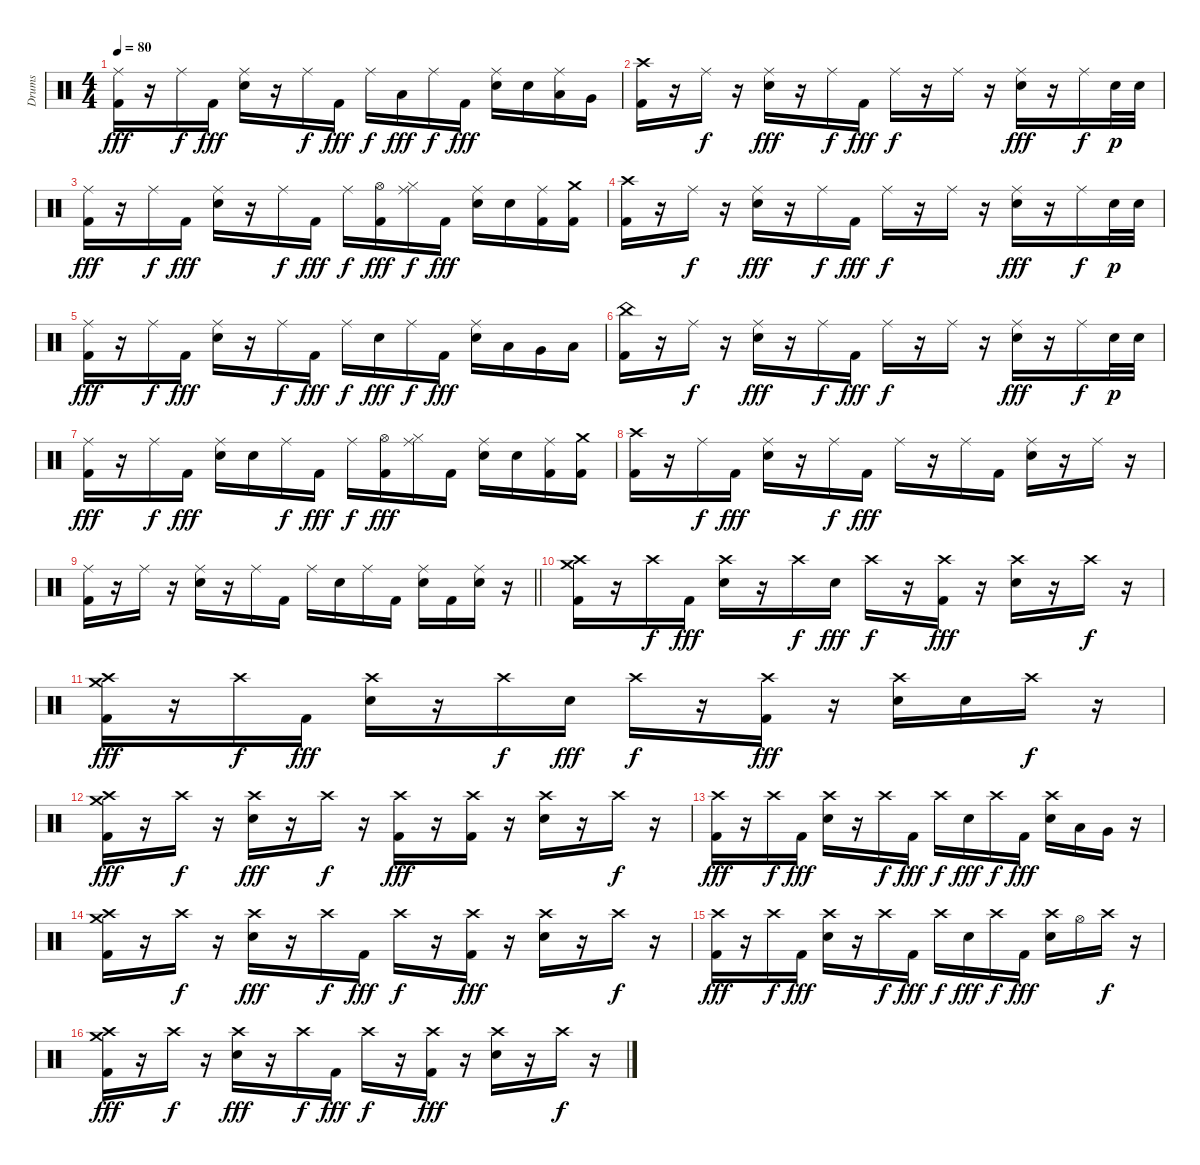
\track ("Drums" "Drums") {instrument percussion}
\staff {score}
\articulation defaults
\ts (4 4)
\tempo 80
\clef neutral
\ks c
("Ride (middle)" "Kick (hit) 2").16{dy fff} r.16 "Ride (middle)".16{dy f} "Kick (hit) 2".16{dy fff} ("Ride (middle)" "Electric Snare (hit)").16 r.16 "Ride (middle)".16{dy f} "Kick (hit) 2".16{dy fff} "Ride (middle)".16{dy f} "Low Tom (hit)".16{dy fff} "Ride (middle)".16{dy f} "Kick (hit) 2".16{dy fff} ("Ride (middle)" "Electric Snare (hit)").16 "Electric Snare (hit)".16 ("Ride (middle)" "Low Tom (hit)").16 "Very Low Tom (hit)".16 |
("Crash high (hit)" "Kick (hit) 2").16 r.16 "Ride (middle)".16{dy f} r.16 ("Ride (middle)" "Electric Snare (hit)").16{dy fff} r.16 "Ride (middle)".16{dy f} "Kick (hit) 2".16{dy fff} "Ride (middle)".16{dy f} r.16 "Ride (middle)".16 r.16 ("Ride (middle)" "Electric Snare (hit)").16{dy fff} r.16 "Ride (middle)".16{dy f} "Electric Snare (hit)".32{dy p} "Electric Snare (hit)".32 |
("Ride (middle)" "Kick (hit) 2").16{dy fff} r.16 "Ride (middle)".16{dy f} "Kick (hit) 2".16{dy fff} ("Ride (middle)" "Electric Snare (hit)").16 r.16 "Ride (middle)".16{dy f} "Kick (hit) 2".16{dy fff} "Ride (middle)".16{dy f} ("Hi-Hat (open)" "Kick (hit) 2").16{dy fff} ("Ride (middle)" "Hi-Hat (closed)").16{dy f} "Kick (hit) 2".16{dy fff} ("Ride (middle)" "Electric Snare (hit)").16 "Electric Snare (hit)".16 ("Ride (middle)" "Kick (hit) 2").16 ("Crash medium (hit)" "Kick (hit) 2").16 |
("Crash high (hit)" "Kick (hit) 2").16 r.16 "Ride (middle)".16{dy f} r.16 ("Ride (middle)" "Electric Snare (hit)").16{dy fff} r.16 "Ride (middle)".16{dy f} "Kick (hit) 2".16{dy fff} "Ride (middle)".16{dy f} r.16 "Ride (middle)".16 r.16 ("Ride (middle)" "Electric Snare (hit)").16{dy fff} r.16 "Ride (middle)".16{dy f} "Electric Snare (hit)".32{dy p} "Electric Snare (hit)".32 |
("Ride (middle)" "Kick (hit) 2").16{dy fff} r.16 "Ride (middle)".16{dy f} "Kick (hit) 2".16{dy fff} ("Ride (middle)" "Electric Snare (hit)").16 r.16 "Ride (middle)".16{dy f} "Kick (hit) 2".16{dy fff} "Ride (middle)".16{dy f} "Electric Snare (hit)".16{dy fff} "Ride (middle)".16{dy f} "Kick (hit) 2".16{dy fff} ("Ride (middle)" "Electric Snare (hit)").16 "Low Tom (hit)".16 "Very Low Tom (hit)".16 "Low Floor Tom (hit)".16 |
("China (hit)" "Kick (hit) 2").16 r.16 "Ride (middle)".16{dy f} r.16 ("Ride (middle)" "Electric Snare (hit)").16{dy fff} r.16 "Ride (middle)".16{dy f} "Kick (hit) 2".16{dy fff} "Ride (middle)".16{dy f} r.16 "Ride (middle)".16 r.16 ("Ride (middle)" "Electric Snare (hit)").16{dy fff} r.16 "Ride (middle)".16{dy f} "Electric Snare (hit)".32{dy p} "Electric Snare (hit)".32 |
("Ride (middle)" "Kick (hit) 2").16{dy fff} r.16 "Ride (middle)".16{dy f} "Kick (hit) 2".16{dy fff} ("Ride (middle)" "Electric Snare (hit)").16 "Electric Snare (hit)".16 "Ride (middle)".16{dy f} "Kick (hit) 2".16{dy fff} "Ride (middle)".16{dy f} ("Hi-Hat (open)" "Kick (hit) 2").16{dy fff} ("Ride (middle)" "Hi-Hat (closed)").16 "Kick (hit) 2".16 ("Ride (middle)" "Electric Snare (hit)").16 "Electric Snare (hit)".16 ("Ride (middle)" "Kick (hit) 2").16 ("Crash medium (hit)" "Kick (hit) 2").16 |
("Crash high (hit)" "Kick (hit) 2").16 r.16 "Ride (middle)".16{dy f} "Kick (hit) 2".16{dy fff} ("Ride (middle)" "Electric Snare (hit)").16 r.16 "Ride (middle)".16{dy f} "Kick (hit) 2".16{dy fff} "Ride (middle)".16 r.16 "Ride (middle)".16 "Kick (hit) 2".16 ("Ride (middle)" "Electric Snare (hit)").16 r.16 "Ride (middle)".16 r.16 |
\barLineRight lightlight
("Ride (middle)" "Kick (hit) 2").16 r.16 "Ride (middle)".16 r.16 ("Ride (middle)" "Electric Snare (hit)").16 r.16 "Ride (middle)".16 "Kick (hit) 2".16 "Ride (middle)".16 "Electric Snare (hit)".16 "Ride (middle)".16 "Kick (hit) 2".16 ("Ride (middle)" "Electric Snare (hit)").16 "Kick (hit) 2".16 ("Ride (middle)" "Electric Snare (hit)").16 r.16 |
\section ("" "")
("Crash medium (hit)" "Crash high (hit)" "Kick (hit) 2").16 r.16 "Crash high (hit)".16{dy f} "Kick (hit) 2".16{dy fff} ("Crash high (hit)" "Electric Snare (hit)").16 r.16 "Crash high (hit)".16{dy f} "Electric Snare (hit)".16{dy fff} "Crash high (hit)".16{dy f} r.16 ("Crash high (hit)" "Kick (hit) 2").16{dy fff} r.16 ("Crash high (hit)" "Electric Snare (hit)").16 r.16 "Crash high (hit)".16{dy f} r.16 |
("Crash medium (hit)" "Crash high (hit)" "Kick (hit) 2").16{dy fff} r.16 "Crash high (hit)".16{dy f} "Kick (hit) 2".16{dy fff} ("Crash high (hit)" "Electric Snare (hit)").16 r.16 "Crash high (hit)".16{dy f} "Electric Snare (hit)".16{dy fff} "Crash high (hit)".16{dy f} r.16 ("Crash high (hit)" "Kick (hit) 2").16{dy fff} r.16 ("Crash high (hit)" "Electric Snare (hit)").16 "Electric Snare (hit)".16 "Crash high (hit)".16{dy f} r.16 |
("Crash medium (hit)" "Crash high (hit)" "Kick (hit) 2").16{dy fff} r.16 "Crash high (hit)".16{dy f} r.16 ("Crash high (hit)" "Electric Snare (hit)").16{dy fff} r.16 "Crash high (hit)".16{dy f} r.16 ("Crash high (hit)" "Kick (hit) 2").16{dy fff} r.16 ("Crash high (hit)" "Kick (hit) 2").16 r.16 ("Crash high (hit)" "Electric Snare (hit)").16 r.16 "Crash high (hit)".16{dy f} r.16 |
("Crash high (hit)" "Kick (hit) 2").16{dy fff} r.16 "Crash high (hit)".16{dy f} "Kick (hit) 2".16{dy fff} ("Crash high (hit)" "Electric Snare (hit)").16 r.16 "Crash high (hit)".16{dy f} "Kick (hit) 2".16{dy fff} "Crash high (hit)".16{dy f} "Electric Snare (hit)".16{dy fff} "Crash high (hit)".16{dy f} "Kick (hit) 2".16{dy fff} ("Crash high (hit)" "Electric Snare (hit)").16 "Low Tom (hit)".16 "Very Low Tom (hit)".16 r.16 |
("Crash medium (hit)" "Crash high (hit)" "Kick (hit) 2").16 r.16 "Crash high (hit)".16{dy f} r.16 ("Crash high (hit)" "Electric Snare (hit)").16{dy fff} r.16 "Crash high (hit)".16{dy f} "Kick (hit) 2".16{dy fff} "Crash high (hit)".16{dy f} r.16 ("Crash high (hit)" "Kick (hit) 2").16{dy fff} r.16 ("Crash high (hit)" "Electric Snare (hit)").16 r.16 "Crash high (hit)".16{dy f} r.16 |
("Crash high (hit)" "Kick (hit) 2").16{dy fff} r.16 "Crash high (hit)".16{dy f} "Kick (hit) 2".16{dy fff} ("Crash high (hit)" "Electric Snare (hit)").16 r.16 "Crash high (hit)".16{dy f} "Kick (hit) 2".16{dy fff} "Crash high (hit)".16{dy f} "Electric Snare (hit)".16{dy fff} "Crash high (hit)".16{dy f} "Kick (hit) 2".16{dy fff} ("Crash high (hit)" "Electric Snare (hit)").16 "Hi-Hat (open)".16 "Crash high (hit)".16{dy f} r.16 |
("Crash medium (hit)" "Crash high (hit)" "Kick (hit) 2").16{dy fff} r.16 "Crash high (hit)".16{dy f} r.16 ("Crash high (hit)" "Electric Snare (hit)").16{dy fff} r.16 "Crash high (hit)".16{dy f} "Kick (hit) 2".16{dy fff} "Crash high (hit)".16{dy f} r.16 ("Crash high (hit)" "Kick (hit) 2").16{dy fff} r.16 ("Crash high (hit)" "Electric Snare (hit)").16 r.16 "Crash high (hit)".16{dy f} r.16
